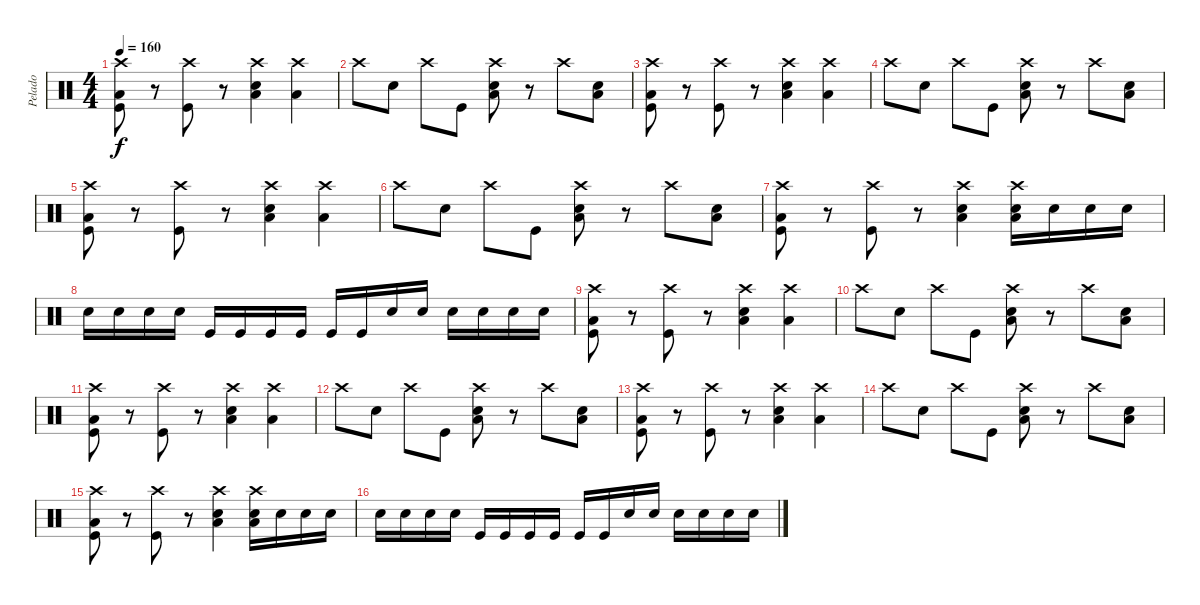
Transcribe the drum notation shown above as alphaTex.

\track ("Pelado" "Pelado") {instrument percussion}
\staff {score}
\articulation defaults
\ts (4 4)
\tempo 160
\clef neutral
\ks c
("Crash high (hit)" "Kick (hit)" "Low Tom (hit)").8{dy f} r.8 ("Crash high (hit)" "Kick (hit)").8 r.8 ("Crash high (hit)" "Snare (hit) 2" "Low Tom (hit)").4 ("Crash high (hit)" "Low Tom (hit)").4 |
"Crash high (hit)".8 "Snare (hit) 2".8 "Crash high (hit)".8 "Kick (hit)".8 ("Crash high (hit)" "Snare (hit) 2" "Low Tom (hit)").8 r.8 "Crash high (hit)".8 ("Snare (hit) 2" "Low Tom (hit)").8 |
("Crash high (hit)" "Kick (hit)" "Low Tom (hit)").8 r.8 ("Crash high (hit)" "Kick (hit)").8 r.8 ("Crash high (hit)" "Snare (hit) 2" "Low Tom (hit)").4 ("Crash high (hit)" "Low Tom (hit)").4 |
"Crash high (hit)".8 "Snare (hit) 2".8 "Crash high (hit)".8 "Kick (hit)".8 ("Crash high (hit)" "Snare (hit) 2" "Low Tom (hit)").8 r.8 "Crash high (hit)".8 ("Snare (hit) 2" "Low Tom (hit)").8 |
("Crash high (hit)" "Kick (hit)" "Low Tom (hit)").8 r.8 ("Crash high (hit)" "Kick (hit)").8 r.8 ("Crash high (hit)" "Snare (hit) 2" "Low Tom (hit)").4 ("Crash high (hit)" "Low Tom (hit)").4 |
"Crash high (hit)".8 "Snare (hit) 2".8 "Crash high (hit)".8 "Kick (hit)".8 ("Crash high (hit)" "Snare (hit) 2" "Low Tom (hit)").8 r.8 "Crash high (hit)".8 ("Snare (hit) 2" "Low Tom (hit)").8 |
("Crash high (hit)" "Kick (hit)" "Low Tom (hit)").8 r.8 ("Crash high (hit)" "Kick (hit)").8 r.8 ("Crash high (hit)" "Snare (hit) 2" "Low Tom (hit)").4 ("Crash high (hit)" "Snare (hit) 2" "Low Tom (hit)").16 "Snare (hit) 2".16 "Snare (hit) 2".16 "Snare (hit) 2".16 |
"Snare (hit) 2".16 "Snare (hit) 2".16 "Snare (hit) 2".16 "Snare (hit) 2".16 "Kick (hit)".16 "Kick (hit)".16 "Kick (hit)".16 "Kick (hit)".16 "Kick (hit)".16 "Kick (hit)".16 "Snare (hit) 2".16 "Snare (hit) 2".16 "Snare (hit) 2".16 "Snare (hit) 2".16 "Snare (hit) 2".16 "Snare (hit) 2".16 |
("Crash high (hit)" "Kick (hit)" "Low Tom (hit)").8 r.8 ("Crash high (hit)" "Kick (hit)").8 r.8 ("Crash high (hit)" "Snare (hit) 2" "Low Tom (hit)").4 ("Crash high (hit)" "Low Tom (hit)").4 |
"Crash high (hit)".8 "Snare (hit) 2".8 "Crash high (hit)".8 "Kick (hit)".8 ("Crash high (hit)" "Snare (hit) 2" "Low Tom (hit)").8 r.8 "Crash high (hit)".8 ("Snare (hit) 2" "Low Tom (hit)").8 |
("Crash high (hit)" "Kick (hit)" "Low Tom (hit)").8 r.8 ("Crash high (hit)" "Kick (hit)").8 r.8 ("Crash high (hit)" "Snare (hit) 2" "Low Tom (hit)").4 ("Crash high (hit)" "Low Tom (hit)").4 |
"Crash high (hit)".8 "Snare (hit) 2".8 "Crash high (hit)".8 "Kick (hit)".8 ("Crash high (hit)" "Snare (hit) 2" "Low Tom (hit)").8 r.8 "Crash high (hit)".8 ("Snare (hit) 2" "Low Tom (hit)").8 |
("Crash high (hit)" "Kick (hit)" "Low Tom (hit)").8 r.8 ("Crash high (hit)" "Kick (hit)").8 r.8 ("Crash high (hit)" "Snare (hit) 2" "Low Tom (hit)").4 ("Crash high (hit)" "Low Tom (hit)").4 |
"Crash high (hit)".8 "Snare (hit) 2".8 "Crash high (hit)".8 "Kick (hit)".8 ("Crash high (hit)" "Snare (hit) 2" "Low Tom (hit)").8 r.8 "Crash high (hit)".8 ("Snare (hit) 2" "Low Tom (hit)").8 |
("Crash high (hit)" "Kick (hit)" "Low Tom (hit)").8 r.8 ("Crash high (hit)" "Kick (hit)").8 r.8 ("Crash high (hit)" "Snare (hit) 2" "Low Tom (hit)").4 ("Crash high (hit)" "Snare (hit) 2" "Low Tom (hit)").16 "Snare (hit) 2".16 "Snare (hit) 2".16 "Snare (hit) 2".16 |
"Snare (hit) 2".16 "Snare (hit) 2".16 "Snare (hit) 2".16 "Snare (hit) 2".16 "Kick (hit)".16 "Kick (hit)".16 "Kick (hit)".16 "Kick (hit)".16 "Kick (hit)".16 "Kick (hit)".16 "Snare (hit) 2".16 "Snare (hit) 2".16 "Snare (hit) 2".16 "Snare (hit) 2".16 "Snare (hit) 2".16 "Snare (hit) 2".16
